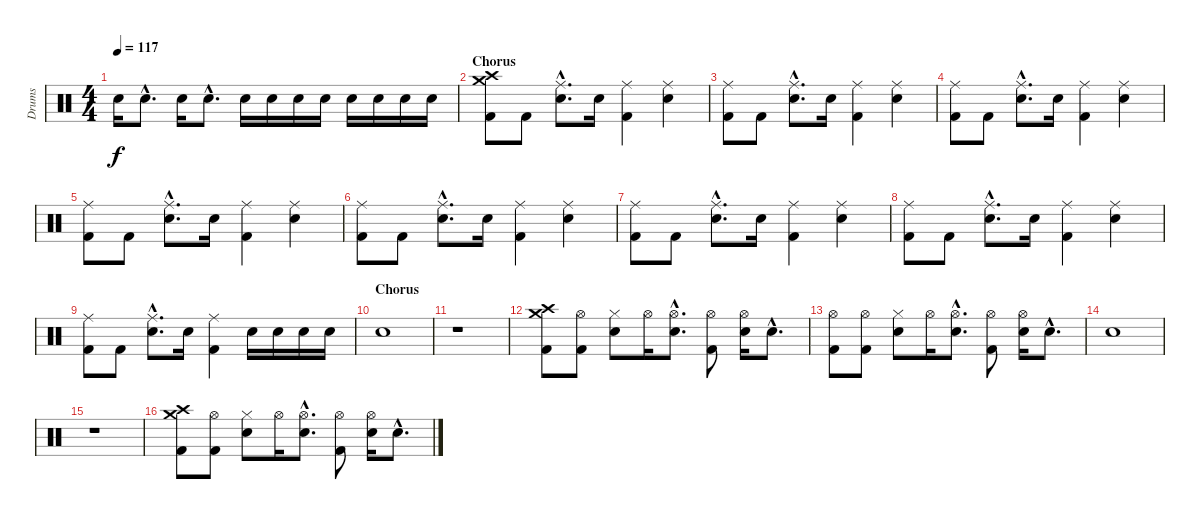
\track ("Drums" "Drums") {instrument percussion}
\staff {score}
\articulation defaults
\ts (4 4)
\tempo 117
\clef neutral
\ks c "Electric Snare (hit)".16{dy f} "Electric Snare (hit)"{hac}.8{d} "Electric Snare (hit)".16 "Electric Snare (hit)"{hac}.8{d} "Electric Snare (hit)".16 "Electric Snare (hit)".16 "Electric Snare (hit)".16 "Electric Snare (hit)".16 "Electric Snare (hit)".16 "Electric Snare (hit)".16 "Electric Snare (hit)".16 "Electric Snare (hit)".16
|
\section ("" "Chorus")
("Crash medium (hit)" "Crash high (hit)" "Kick (hit) 2").8 "Kick (hit) 2".8 ("Ride (middle)"{hac} "Electric Snare (hit)"{hac}).8{d} "Electric Snare (hit)".16 ("Ride (middle)" "Kick (hit) 2").4 ("Ride (middle)" "Electric Snare (hit)").4 |
("Ride (middle)" "Kick (hit) 2").8 "Kick (hit) 2".8 ("Ride (middle)"{hac} "Electric Snare (hit)"{hac}).8{d} "Electric Snare (hit)".16 ("Ride (middle)" "Kick (hit) 2").4 ("Ride (middle)" "Electric Snare (hit)").4 |
("Ride (middle)" "Kick (hit) 2").8 "Kick (hit) 2".8 ("Ride (middle)"{hac} "Electric Snare (hit)"{hac}).8{d} "Electric Snare (hit)".16 ("Ride (middle)" "Kick (hit) 2").4 ("Ride (middle)" "Electric Snare (hit)").4 |
("Ride (middle)" "Kick (hit) 2").8 "Kick (hit) 2".8 ("Ride (middle)"{hac} "Electric Snare (hit)"{hac}).8{d} "Electric Snare (hit)".16 ("Ride (middle)" "Kick (hit) 2").4 ("Ride (middle)" "Electric Snare (hit)").4 |
("Ride (middle)" "Kick (hit) 2").8 "Kick (hit) 2".8 ("Ride (middle)"{hac} "Electric Snare (hit)"{hac}).8{d} "Electric Snare (hit)".16 ("Ride (middle)" "Kick (hit) 2").4 ("Ride (middle)" "Electric Snare (hit)").4 |
("Ride (middle)" "Kick (hit) 2").8 "Kick (hit) 2".8 ("Ride (middle)"{hac} "Electric Snare (hit)"{hac}).8{d} "Electric Snare (hit)".16 ("Ride (middle)" "Kick (hit) 2").4 ("Ride (middle)" "Electric Snare (hit)").4 |
("Ride (middle)" "Kick (hit) 2").8 "Kick (hit) 2".8 ("Ride (middle)"{hac} "Electric Snare (hit)"{hac}).8{d} "Electric Snare (hit)".16 ("Ride (middle)" "Kick (hit) 2").4 ("Ride (middle)" "Electric Snare (hit)").4 |
("Ride (middle)" "Kick (hit) 2").8 "Kick (hit) 2".8 ("Ride (middle)"{hac} "Electric Snare (hit)"{hac}).8{d} "Electric Snare (hit)".16 ("Ride (middle)" "Kick (hit) 2").4 "Electric Snare (hit)".16 "Electric Snare (hit)".16 "Electric Snare (hit)".16 "Electric Snare (hit)".16 |
\section ("" "Chorus")
"Electric Snare (hit)".1 |
r.1 |
("Crash medium (hit)" "Crash high (hit)" "Kick (hit) 2").8 ("Hi-Hat (open)" "Kick (hit) 2").8 ("Hi-Hat (closed)" "Electric Snare (hit)").8 "Hi-Hat (open)".16 ("Hi-Hat (open)"{hac} "Electric Snare (hit)"{hac}).8{d} ("Hi-Hat (open)" "Kick (hit) 2").8 ("Hi-Hat (open)" "Electric Snare (hit)").16 "Electric Snare (hit)"{hac}.8{d} |
("Hi-Hat (open)" "Kick (hit) 2").8 ("Hi-Hat (open)" "Kick (hit) 2").8 ("Hi-Hat (closed)" "Electric Snare (hit)").8 "Hi-Hat (open)".16 ("Hi-Hat (open)"{hac} "Electric Snare (hit)"{hac}).8{d} ("Hi-Hat (open)" "Kick (hit) 2").8 ("Hi-Hat (open)" "Electric Snare (hit)").16 "Electric Snare (hit)"{hac}.8{d} |
"Electric Snare (hit)".1 |
r.1 |
("Crash medium (hit)" "Crash high (hit)" "Kick (hit) 2").8 ("Hi-Hat (open)" "Kick (hit) 2").8 ("Hi-Hat (closed)" "Electric Snare (hit)").8 "Hi-Hat (open)".16 ("Hi-Hat (open)"{hac} "Electric Snare (hit)"{hac}).8{d} ("Hi-Hat (open)" "Kick (hit) 2").8 ("Hi-Hat (open)" "Electric Snare (hit)").16 "Electric Snare (hit)"{hac}.8{d}
